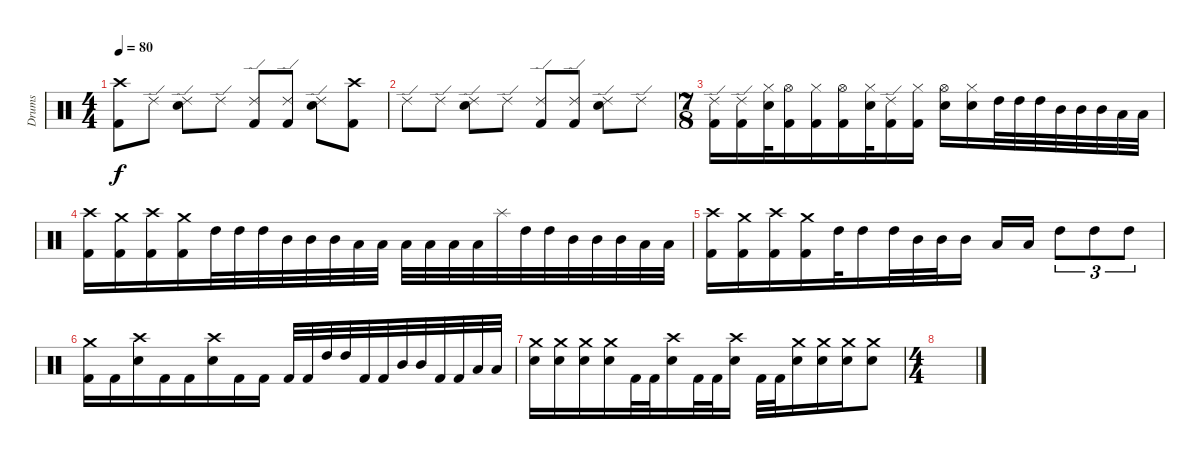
\track ("Drums" "Drums") {instrument percussion}
\staff {score}
\articulation defaults
\ts (4 4)
\tempo 80
\clef neutral
\ks c
("Crash high (hit)" "Kick (hit) 2").8{dy f} "Ride (edge) 2".8 ("Ride (edge) 2" "Snare (hit) 2").8 "Ride (edge) 2".8 ("Ride (edge) 2" "Kick (hit) 2").8 ("Ride (edge) 2" "Kick (hit) 2").8 ("Ride (edge) 2" "Snare (hit) 2").8 ("Crash high (hit)" "Kick (hit) 2").8 |
"Ride (edge) 2".8 "Ride (edge) 2".8 ("Ride (edge) 2" "Snare (hit) 2").8 "Ride (edge) 2".8 ("Ride (edge) 2" "Kick (hit) 2").8 ("Ride (edge) 2" "Kick (hit) 2").8 ("Ride (edge) 2" "Snare (hit) 2").8 "Ride (edge) 2".8 |
\ts (7 8)
("Ride (edge) 2" "Kick (hit) 2").16 ("Ride (edge) 2" "Kick (hit) 2").16 ("Hi-Hat (closed)" "Snare (hit) 2").32 ("Hi-Hat (open)" "Kick (hit) 2").16 ("Hi-Hat (closed)" "Kick (hit) 2").16 ("Hi-Hat (open)" "Kick (hit) 2").16 ("Hi-Hat (closed)" "Snare (hit) 2").32 ("Ride (edge) 2" "Kick (hit) 2").16 ("Hi-Hat (closed)" "Kick (hit) 2").16 ("Hi-Hat (open)" "Snare (hit) 2").16 ("Hi-Hat (closed)" "Snare (hit) 2").16 "High Tom (hit)".32 "High Tom (hit)".32 "High Tom (hit)".32 "Mid Tom (hit)".32 "Mid Tom (hit)".32 "Mid Tom (hit)".32 "Low Tom (hit)".32 "Low Tom (hit)".32 |
("Crash high (hit)" "Kick (hit) 2").16 ("Crash medium (hit)" "Kick (hit) 2").16 ("Crash high (hit)" "Kick (hit) 2").16 ("Crash medium (hit)" "Kick (hit) 2").16 "High Tom (hit)".32 "High Tom (hit)".32 "High Tom (hit)".32 "Mid Tom (hit)".32 "Mid Tom (hit)".32 "Mid Tom (hit)".32 "Low Tom (hit)".32 "Low Tom (hit)".32 "Low Tom (hit)".32 "Low Floor Tom (hit)".32 "Low Floor Tom (hit)".32 "Low Floor Tom (hit)".32 "Splash (hit)".32 "High Tom (hit)".32 "High Tom (hit)".32 "Mid Tom (hit)".32 "Mid Tom (hit)".32 "Mid Tom (hit)".32 "Low Tom (hit)".32 "Low Tom (hit)".32 |
("Crash high (hit)" "Kick (hit) 2").16 ("Crash medium (hit)" "Kick (hit) 2").16 ("Crash high (hit)" "Kick (hit) 2").16 ("Crash medium (hit)" "Kick (hit) 2").16 "High Tom (hit)".32 "High Tom (hit)".16 "High Tom (hit)".32 "Mid Tom (hit)".32 "Mid Tom (hit)".32 "Mid Tom (hit)".16 "Low Tom (hit)".16 "Low Tom (hit)".16 "High Tom (hit)".8{tu (3 2)} "High Tom (hit)".8{tu (3 2)} "High Tom (hit)".8{tu (3 2)} |
("Crash medium (hit)" "Kick (hit) 2").16 "Kick (hit) 2".16 ("Crash high (hit)" "Snare (hit) 2").16 "Kick (hit) 2".16 "Kick (hit) 2".16 ("Crash high (hit)" "Snare (hit) 2").16 "Kick (hit) 2".16 "Kick (hit) 2".16 "Kick (hit) 2".32 "Kick (hit) 2".32 "High Tom (hit)".32 "High Tom (hit)".32 "Kick (hit) 2".32 "Kick (hit) 2".32 "Mid Tom (hit)".32 "Mid Tom (hit)".32 "Kick (hit) 2".32 "Kick (hit) 2".32 "Low Tom (hit)".32 "Low Tom (hit)".32 |
("Crash medium (hit)" "Snare (hit) 2").16 ("Crash medium (hit)" "Snare (hit) 2").16 ("Crash medium (hit)" "Snare (hit) 2").16 ("Crash medium (hit)" "Snare (hit) 2").16 "Kick (hit) 2".32 "Kick (hit) 2".32 ("Crash high (hit)" "Snare (hit) 2").16 "Kick (hit) 2".32 "Kick (hit) 2".32 ("Crash high (hit)" "Snare (hit) 2").16 "Kick (hit) 2".32 "Kick (hit) 2".32 ("Crash medium (hit)" "Snare (hit) 2").16 ("Crash medium (hit)" "Snare (hit) 2").16 ("Crash medium (hit)" "Snare (hit) 2").16 ("Crash medium (hit)" "Snare (hit) 2").8 |
\ts (4 4)
